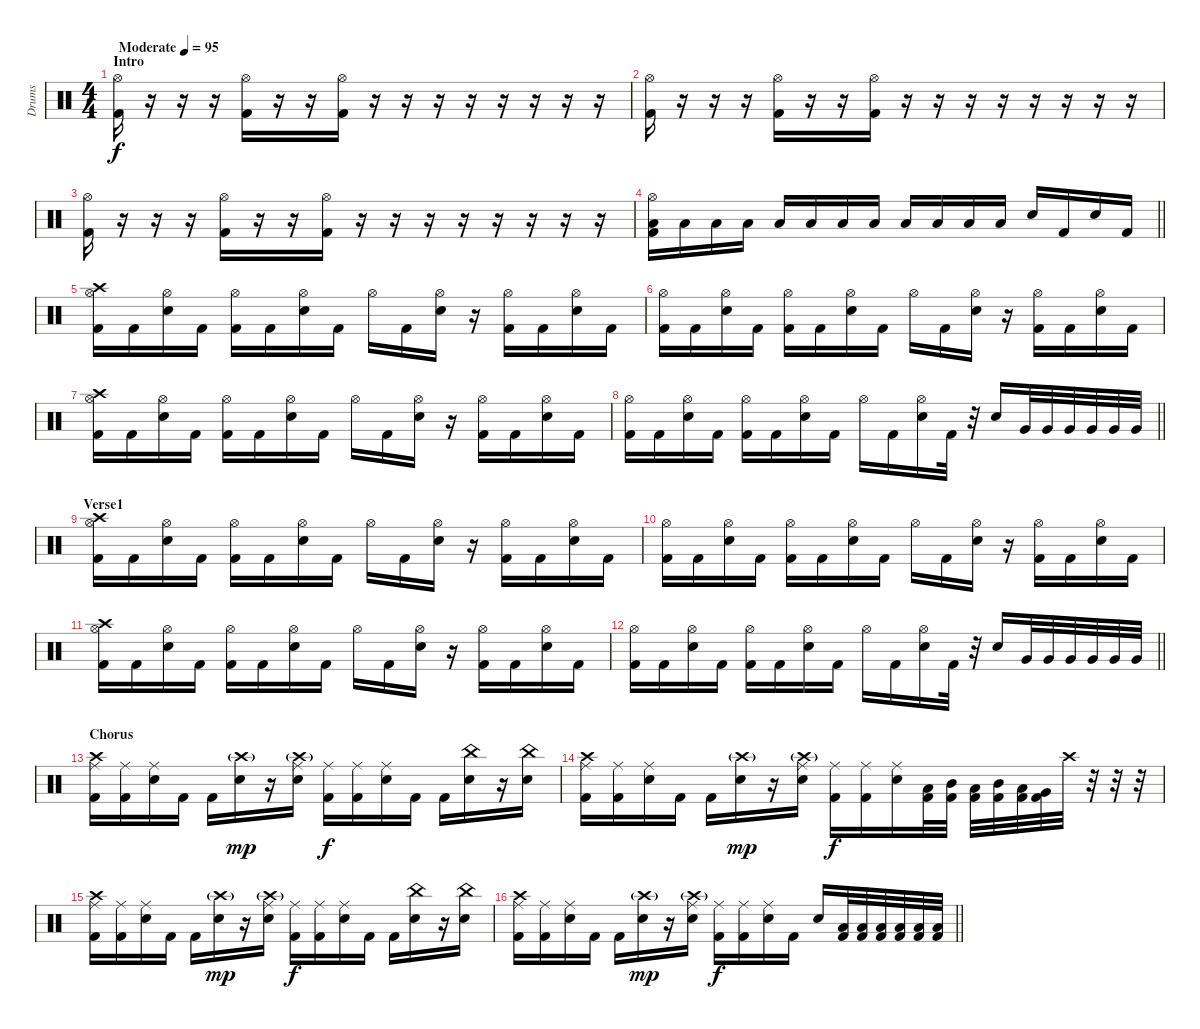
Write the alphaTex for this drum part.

\track ("Drums" "Drums") {instrument percussion}
\staff {score}
\articulation defaults
\ts (4 4)
\section ("" "Intro")
\tempo (95 "Moderate")
\clef neutral
\ks c
("Hi-Hat (open)" "Kick (hit) 2").16{dy f} r.16 r.16 r.16 ("Hi-Hat (open)" "Kick (hit) 2").16 r.16 r.16 ("Hi-Hat (open)" "Kick (hit) 2").16 r.16 r.16 r.16 r.16 r.16 r.16 r.16 r.16 |
("Hi-Hat (open)" "Kick (hit) 2").16 r.16 r.16 r.16 ("Hi-Hat (open)" "Kick (hit) 2").16 r.16 r.16 ("Hi-Hat (open)" "Kick (hit) 2").16 r.16 r.16 r.16 r.16 r.16 r.16 r.16 r.16 |
("Hi-Hat (open)" "Kick (hit) 2").16 r.16 r.16 r.16 ("Hi-Hat (open)" "Kick (hit) 2").16 r.16 r.16 ("Hi-Hat (open)" "Kick (hit) 2").16 r.16 r.16 r.16 r.16 r.16 r.16 r.16 r.16 |
\barLineRight lightlight
("Low Floor Tom (hit)" "Hi-Hat (open)" "Kick (hit) 2").16 "Low Floor Tom (hit)".16 "Low Floor Tom (hit)".16 "Low Floor Tom (hit)".16 "Low Floor Tom (hit)".16 "Low Floor Tom (hit)".16 "Low Floor Tom (hit)".16 "Low Floor Tom (hit)".16 "Low Floor Tom (hit)".16 "Low Floor Tom (hit)".16 "Low Floor Tom (hit)".16 "Low Floor Tom (hit)".16 "Snare (hit) 2".16 "Kick (hit) 2".16 "Snare (hit) 2".16 "Kick (hit) 2".16 |
\section ("" "")
("Crash high (hit)" "Kick (hit) 2" "Hi-Hat (open)").16 "Kick (hit) 2".16 ("Snare (hit) 2" "Hi-Hat (open)").16 "Kick (hit) 2".16 ("Kick (hit) 2" "Hi-Hat (open)").16 "Kick (hit) 2".16 ("Snare (hit) 2" "Hi-Hat (open)").16 "Kick (hit) 2".16 "Hi-Hat (open)".16 "Kick (hit) 2".16 ("Snare (hit) 2" "Hi-Hat (open)").16 r.16 ("Kick (hit) 2" "Hi-Hat (open)").16 "Kick (hit) 2".16 ("Snare (hit) 2" "Hi-Hat (open)").16 "Kick (hit) 2".16 |
("Kick (hit) 2" "Hi-Hat (open)").16 "Kick (hit) 2".16 ("Snare (hit) 2" "Hi-Hat (open)").16 "Kick (hit) 2".16 ("Kick (hit) 2" "Hi-Hat (open)").16 "Kick (hit) 2".16 ("Snare (hit) 2" "Hi-Hat (open)").16 "Kick (hit) 2".16 "Hi-Hat (open)".16 "Kick (hit) 2".16 ("Snare (hit) 2" "Hi-Hat (open)").16 r.16 ("Kick (hit) 2" "Hi-Hat (open)").16 "Kick (hit) 2".16 ("Snare (hit) 2" "Hi-Hat (open)").16 "Kick (hit) 2".16 |
("Crash high (hit)" "Kick (hit) 2" "Hi-Hat (open)").16 "Kick (hit) 2".16 ("Snare (hit) 2" "Hi-Hat (open)").16 "Kick (hit) 2".16 ("Kick (hit) 2" "Hi-Hat (open)").16 "Kick (hit) 2".16 ("Snare (hit) 2" "Hi-Hat (open)").16 "Kick (hit) 2".16 "Hi-Hat (open)".16 "Kick (hit) 2".16 ("Snare (hit) 2" "Hi-Hat (open)").16 r.16 ("Kick (hit) 2" "Hi-Hat (open)").16 "Kick (hit) 2".16 ("Snare (hit) 2" "Hi-Hat (open)").16 "Kick (hit) 2".16 |
\barLineRight lightlight
("Kick (hit) 2" "Hi-Hat (open)").16 "Kick (hit) 2".16 ("Snare (hit) 2" "Hi-Hat (open)").16 "Kick (hit) 2".16 ("Kick (hit) 2" "Hi-Hat (open)").16 "Kick (hit) 2".16 ("Snare (hit) 2" "Hi-Hat (open)").16 "Kick (hit) 2".16 "Hi-Hat (open)".16 "Kick (hit) 2".16 ("Snare (hit) 2" "Hi-Hat (open)").16 "Kick (hit) 2".32 r.32 "Snare (hit) 2".16 "Very Low Tom (hit)".32 "Very Low Tom (hit)".32 "Very Low Tom (hit)".32 "Very Low Tom (hit)".32 "Very Low Tom (hit)".32 "Very Low Tom (hit)".32 |
\section ("" "Verse1")
("Crash high (hit)" "Kick (hit) 2" "Hi-Hat (open)").16 "Kick (hit) 2".16 ("Snare (hit) 2" "Hi-Hat (open)").16 "Kick (hit) 2".16 ("Kick (hit) 2" "Hi-Hat (open)").16 "Kick (hit) 2".16 ("Snare (hit) 2" "Hi-Hat (open)").16 "Kick (hit) 2".16 "Hi-Hat (open)".16 "Kick (hit) 2".16 ("Snare (hit) 2" "Hi-Hat (open)").16 r.16 ("Kick (hit) 2" "Hi-Hat (open)").16 "Kick (hit) 2".16 ("Snare (hit) 2" "Hi-Hat (open)").16 "Kick (hit) 2".16 |
("Kick (hit) 2" "Hi-Hat (open)").16 "Kick (hit) 2".16 ("Snare (hit) 2" "Hi-Hat (open)").16 "Kick (hit) 2".16 ("Kick (hit) 2" "Hi-Hat (open)").16 "Kick (hit) 2".16 ("Snare (hit) 2" "Hi-Hat (open)").16 "Kick (hit) 2".16 "Hi-Hat (open)".16 "Kick (hit) 2".16 ("Snare (hit) 2" "Hi-Hat (open)").16 r.16 ("Kick (hit) 2" "Hi-Hat (open)").16 "Kick (hit) 2".16 ("Snare (hit) 2" "Hi-Hat (open)").16 "Kick (hit) 2".16 |
("Crash high (hit)" "Kick (hit) 2" "Hi-Hat (open)").16 "Kick (hit) 2".16 ("Snare (hit) 2" "Hi-Hat (open)").16 "Kick (hit) 2".16 ("Kick (hit) 2" "Hi-Hat (open)").16 "Kick (hit) 2".16 ("Snare (hit) 2" "Hi-Hat (open)").16 "Kick (hit) 2".16 "Hi-Hat (open)".16 "Kick (hit) 2".16 ("Snare (hit) 2" "Hi-Hat (open)").16 r.16 ("Kick (hit) 2" "Hi-Hat (open)").16 "Kick (hit) 2".16 ("Snare (hit) 2" "Hi-Hat (open)").16 "Kick (hit) 2".16 |
\barLineRight lightlight
("Kick (hit) 2" "Hi-Hat (open)").16 "Kick (hit) 2".16 ("Snare (hit) 2" "Hi-Hat (open)").16 "Kick (hit) 2".16 ("Kick (hit) 2" "Hi-Hat (open)").16 "Kick (hit) 2".16 ("Snare (hit) 2" "Hi-Hat (open)").16 "Kick (hit) 2".16 "Hi-Hat (open)".16 "Kick (hit) 2".16 ("Snare (hit) 2" "Hi-Hat (open)").16 "Kick (hit) 2".32 r.32 "Snare (hit) 2".16 "Very Low Tom (hit)".32 "Very Low Tom (hit)".32 "Very Low Tom (hit)".32 "Very Low Tom (hit)".32 "Very Low Tom (hit)".32 "Very Low Tom (hit)".32 |
\section ("" "Chorus")
("Crash high (hit)" "Kick (hit) 2" "Ride (middle)").16 ("Kick (hit) 2" "Ride (middle)").16 ("Snare (hit) 2" "Ride (middle)").16 "Kick (hit) 2".16 "Kick (hit) 2".16 ("Crash high (hit)"{g} "Snare (hit) 2").16{dy mp} r.16 ("Crash high (hit)"{g} "Snare (hit) 2" "Ride (middle)").16 ("Kick (hit) 2" "Ride (middle)").16{dy f} ("Kick (hit) 2" "Ride (middle)").16 ("Snare (hit) 2" "Ride (middle)").16 "Kick (hit) 2".16 "Kick (hit) 2".16 ("China (hit)" "Snare (hit) 2").16 r.16 ("China (hit)" "Snare (hit) 2").16 |
("Crash high (hit)" "Kick (hit) 2" "Ride (middle)").16 ("Kick (hit) 2" "Ride (middle)").16 ("Snare (hit) 2" "Ride (middle)").16 "Kick (hit) 2".16 "Kick (hit) 2".16 ("Crash high (hit)"{g} "Snare (hit) 2").16{dy mp} r.16 ("Crash high (hit)"{g} "Snare (hit) 2" "Ride (middle)").16 ("Kick (hit) 2" "Ride (middle)").16{dy f} ("Kick (hit) 2" "Ride (middle)").16 ("Snare (hit) 2" "Ride (middle)").16 ("Low Tom (hit)" "Kick (hit) 2").32 ("Mid Tom (hit)" "Kick (hit) 2").32 ("Low Tom (hit)" "Kick (hit) 2").32 ("Mid Tom (hit)" "Kick (hit) 2").32 ("Low Tom (hit)" "Kick (hit) 2").32 ("Very Low Tom (hit)" "Kick (hit) 2").32 "Crash high (hit)".32 r.32 r.32 r.32 |
("Crash high (hit)" "Kick (hit) 2" "Ride (middle)").16 ("Kick (hit) 2" "Ride (middle)").16 ("Snare (hit) 2" "Ride (middle)").16 "Kick (hit) 2".16 "Kick (hit) 2".16 ("Crash high (hit)"{g} "Snare (hit) 2").16{dy mp} r.16 ("Crash high (hit)"{g} "Snare (hit) 2" "Ride (middle)").16 ("Kick (hit) 2" "Ride (middle)").16{dy f} ("Kick (hit) 2" "Ride (middle)").16 ("Snare (hit) 2" "Ride (middle)").16 "Kick (hit) 2".16 "Kick (hit) 2".16 ("China (hit)" "Snare (hit) 2").16 r.16 ("China (hit)" "Snare (hit) 2").16 |
\barLineRight lightlight
("Crash high (hit)" "Kick (hit) 2" "Ride (middle)").16 ("Kick (hit) 2" "Ride (middle)").16 ("Snare (hit) 2" "Ride (middle)").16 "Kick (hit) 2".16 "Kick (hit) 2".16 ("Crash high (hit)"{g} "Snare (hit) 2").16{dy mp} r.16 ("Crash high (hit)"{g} "Snare (hit) 2" "Ride (middle)").16 ("Kick (hit) 2" "Ride (middle)").16{dy f} ("Kick (hit) 2" "Ride (middle)").16 ("Snare (hit) 2" "Ride (middle)").16 "Kick (hit) 2".16 "Snare (hit) 2".16 ("Low Tom (hit)" "Kick (hit) 2").32 ("Low Tom (hit)" "Kick (hit) 2").32 ("Low Tom (hit)" "Kick (hit) 2").32 ("Low Tom (hit)" "Kick (hit) 2").32 ("Low Tom (hit)" "Kick (hit) 2").32 ("Low Tom (hit)" "Kick (hit) 2").32
